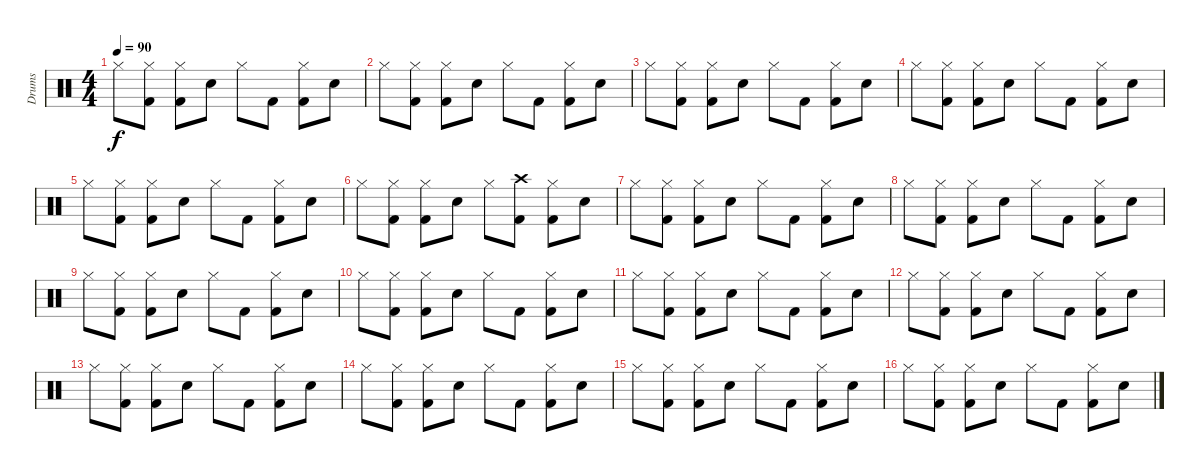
\track ("Drums" "Drums") {instrument percussion}
\staff {score}
\articulation defaults
\ts (4 4)
\tempo 90
\clef neutral
\ks c "Hi-Hat (closed)".8{dy f}
("Hi-Hat (closed)" "Kick (hit) 2").8 ("Hi-Hat (closed)" "Kick (hit) 2").8 "Snare (hit) 2".8 "Hi-Hat (closed)".8 "Kick (hit) 2".8 ("Hi-Hat (closed)" "Kick (hit) 2").8 "Snare (hit) 2".8 |
"Hi-Hat (closed)".8 ("Hi-Hat (closed)" "Kick (hit) 2").8 ("Hi-Hat (closed)" "Kick (hit) 2").8 "Snare (hit) 2".8 "Hi-Hat (closed)".8 "Kick (hit) 2".8 ("Hi-Hat (closed)" "Kick (hit) 2").8 "Snare (hit) 2".8 |
"Hi-Hat (closed)".8 ("Hi-Hat (closed)" "Kick (hit) 2").8 ("Hi-Hat (closed)" "Kick (hit) 2").8 "Snare (hit) 2".8 "Hi-Hat (closed)".8 "Kick (hit) 2".8 ("Hi-Hat (closed)" "Kick (hit) 2").8 "Snare (hit) 2".8 |
"Hi-Hat (closed)".8 ("Hi-Hat (closed)" "Kick (hit) 2").8 ("Hi-Hat (closed)" "Kick (hit) 2").8 "Snare (hit) 2".8 "Hi-Hat (closed)".8 "Kick (hit) 2".8 ("Hi-Hat (closed)" "Kick (hit) 2").8 "Snare (hit) 2".8 |
"Hi-Hat (closed)".8 ("Hi-Hat (closed)" "Kick (hit) 2").8 ("Hi-Hat (closed)" "Kick (hit) 2").8 "Snare (hit) 2".8 "Hi-Hat (closed)".8 "Kick (hit) 2".8 ("Hi-Hat (closed)" "Kick (hit) 2").8 "Snare (hit) 2".8 |
"Hi-Hat (closed)".8 ("Hi-Hat (closed)" "Kick (hit) 2").8 ("Hi-Hat (closed)" "Kick (hit) 2").8 "Snare (hit) 2".8 "Hi-Hat (closed)".8 ("Crash high (hit)" "Kick (hit) 2").8 ("Hi-Hat (closed)" "Kick (hit) 2").8 "Snare (hit) 2".8 |
"Hi-Hat (closed)".8 ("Hi-Hat (closed)" "Kick (hit) 2").8 ("Hi-Hat (closed)" "Kick (hit) 2").8 "Snare (hit) 2".8 "Hi-Hat (closed)".8 "Kick (hit) 2".8 ("Hi-Hat (closed)" "Kick (hit) 2").8 "Snare (hit) 2".8 |
"Hi-Hat (closed)".8 ("Hi-Hat (closed)" "Kick (hit) 2").8 ("Hi-Hat (closed)" "Kick (hit) 2").8 "Snare (hit) 2".8 "Hi-Hat (closed)".8 "Kick (hit) 2".8 ("Hi-Hat (closed)" "Kick (hit) 2").8 "Snare (hit) 2".8 |
"Hi-Hat (closed)".8 ("Hi-Hat (closed)" "Kick (hit) 2").8 ("Hi-Hat (closed)" "Kick (hit) 2").8 "Snare (hit) 2".8 "Hi-Hat (closed)".8 "Kick (hit) 2".8 ("Hi-Hat (closed)" "Kick (hit) 2").8 "Snare (hit) 2".8 |
"Hi-Hat (closed)".8 ("Hi-Hat (closed)" "Kick (hit) 2").8 ("Hi-Hat (closed)" "Kick (hit) 2").8 "Snare (hit) 2".8 "Hi-Hat (closed)".8 "Kick (hit) 2".8 ("Hi-Hat (closed)" "Kick (hit) 2").8 "Snare (hit) 2".8 |
"Hi-Hat (closed)".8 ("Hi-Hat (closed)" "Kick (hit) 2").8 ("Hi-Hat (closed)" "Kick (hit) 2").8 "Snare (hit) 2".8 "Hi-Hat (closed)".8 "Kick (hit) 2".8 ("Hi-Hat (closed)" "Kick (hit) 2").8 "Snare (hit) 2".8 |
"Hi-Hat (closed)".8 ("Hi-Hat (closed)" "Kick (hit) 2").8 ("Hi-Hat (closed)" "Kick (hit) 2").8 "Snare (hit) 2".8 "Hi-Hat (closed)".8 "Kick (hit) 2".8 ("Hi-Hat (closed)" "Kick (hit) 2").8 "Snare (hit) 2".8 |
"Hi-Hat (closed)".8 ("Hi-Hat (closed)" "Kick (hit) 2").8 ("Hi-Hat (closed)" "Kick (hit) 2").8 "Snare (hit) 2".8 "Hi-Hat (closed)".8 "Kick (hit) 2".8 ("Hi-Hat (closed)" "Kick (hit) 2").8 "Snare (hit) 2".8 |
"Hi-Hat (closed)".8 ("Hi-Hat (closed)" "Kick (hit) 2").8 ("Hi-Hat (closed)" "Kick (hit) 2").8 "Snare (hit) 2".8 "Hi-Hat (closed)".8 "Kick (hit) 2".8 ("Hi-Hat (closed)" "Kick (hit) 2").8 "Snare (hit) 2".8 |
"Hi-Hat (closed)".8 ("Hi-Hat (closed)" "Kick (hit) 2").8 ("Hi-Hat (closed)" "Kick (hit) 2").8 "Snare (hit) 2".8 "Hi-Hat (closed)".8 "Kick (hit) 2".8 ("Hi-Hat (closed)" "Kick (hit) 2").8 "Snare (hit) 2".8 |
"Hi-Hat (closed)".8{volume 0} ("Hi-Hat (closed)" "Kick (hit) 2").8 ("Hi-Hat (closed)" "Kick (hit) 2").8 "Snare (hit) 2".8 "Hi-Hat (closed)".8 "Kick (hit) 2".8 ("Hi-Hat (closed)" "Kick (hit) 2").8 "Snare (hit) 2".8
